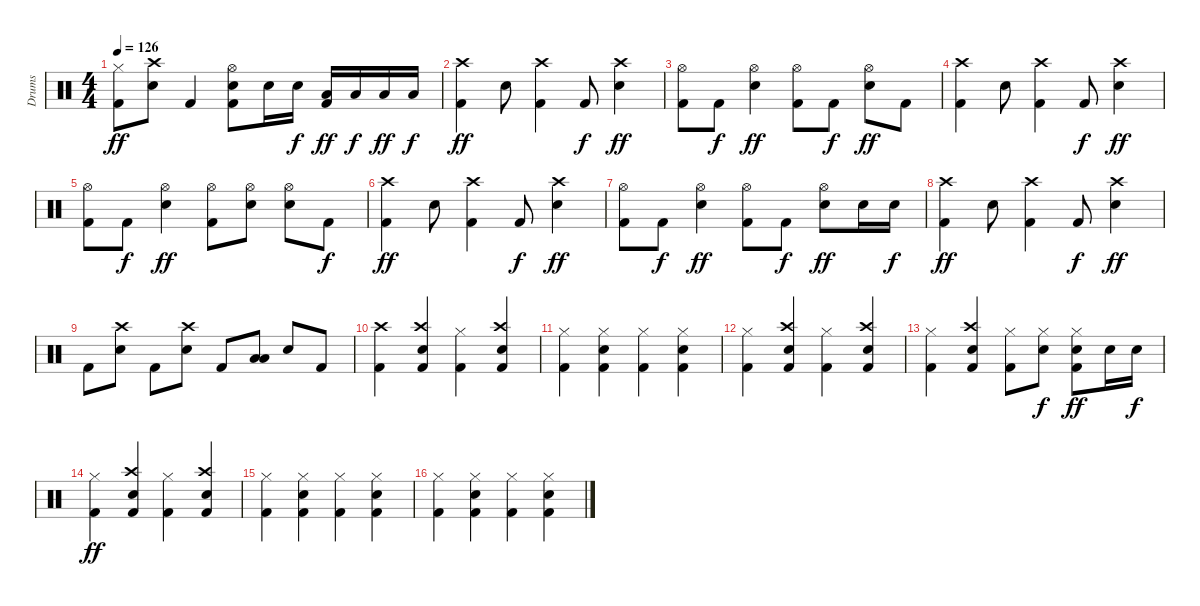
\track ("Drums" "Drums") {instrument percussion}
\staff {score}
\articulation defaults
\ts (4 4)
\tempo 126
\clef neutral
\ks c
("Hi-Hat (closed)" "Kick (hit) 2").8{dy ff} ("Crash high (hit)" "Snare (hit) 2").8 "Kick (hit) 2".4 ("Hi-Hat (open)" "Snare (hit) 2" "Kick (hit) 2").8 "Snare (hit) 2".16 "Snare (hit) 2".16{dy f} ("Low Tom (hit)" "Kick (hit) 2").16{dy ff} "Low Tom (hit)".16{dy f} "Low Floor Tom (hit)".16{dy ff} "Low Floor Tom (hit)".16{dy f} |
("Crash high (hit)" "Kick (hit) 2").4{dy ff} "Snare (hit) 2".8 ("Crash high (hit)" "Kick (hit) 2").4 "Kick (hit) 2".8{dy f} ("Crash high (hit)" "Snare (hit) 2").4{dy ff} |
("Hi-Hat (open)" "Kick (hit) 2").8 "Kick (hit) 2".8{dy f} ("Hi-Hat (open)" "Snare (hit) 2").4{dy ff} ("Hi-Hat (open)" "Kick (hit) 2").8 "Kick (hit) 2".8{dy f} ("Hi-Hat (open)" "Snare (hit) 2").8{dy ff} "Kick (hit) 2".8 |
("Crash high (hit)" "Kick (hit) 2").4 "Snare (hit) 2".8 ("Crash high (hit)" "Kick (hit) 2").4 "Kick (hit) 2".8{dy f} ("Crash high (hit)" "Snare (hit) 2").4{dy ff} |
("Hi-Hat (open)" "Kick (hit) 2").8 "Kick (hit) 2".8{dy f} ("Hi-Hat (open)" "Snare (hit) 2").4{dy ff} ("Hi-Hat (open)" "Kick (hit) 2").8 ("Hi-Hat (open)" "Snare (hit) 2").8 ("Hi-Hat (open)" "Snare (hit) 2").8 "Kick (hit) 2".8{dy f} |
("Crash high (hit)" "Kick (hit) 2").4{dy ff} "Snare (hit) 2".8 ("Crash high (hit)" "Kick (hit) 2").4 "Kick (hit) 2".8{dy f} ("Crash high (hit)" "Snare (hit) 2").4{dy ff} |
("Hi-Hat (open)" "Kick (hit) 2").8 "Kick (hit) 2".8{dy f} ("Hi-Hat (open)" "Snare (hit) 2").4{dy ff} ("Hi-Hat (open)" "Kick (hit) 2").8 "Kick (hit) 2".8{dy f} ("Hi-Hat (open)" "Snare (hit) 2").8{dy ff} "Snare (hit) 2".16 "Snare (hit) 2".16{dy f} |
("Crash high (hit)" "Kick (hit) 2").4{dy ff} "Snare (hit) 2".8 ("Crash high (hit)" "Kick (hit) 2").4 "Kick (hit) 2".8{dy f} ("Crash high (hit)" "Snare (hit) 2").4{dy ff} |
"Kick (hit) 2".8 ("Crash high (hit)" "Snare (hit) 2").8 "Kick (hit) 2".8 ("Crash high (hit)" "Snare (hit) 2").8 "Kick (hit) 2".8 ("Low Tom (hit)" "Low Floor Tom (hit)").8 "Snare (hit) 2".8 "Kick (hit) 2".8 |
("Crash high (hit)" "Kick (hit) 2").4 ("Crash high (hit)" "Snare (hit) 2" "Kick (hit) 2").4 ("Hi-Hat (closed)" "Kick (hit) 2").4 ("Crash high (hit)" "Snare (hit) 2" "Kick (hit) 2").4 |
("Hi-Hat (closed)" "Kick (hit) 2").4 ("Hi-Hat (closed)" "Snare (hit) 2" "Kick (hit) 2").4 ("Hi-Hat (closed)" "Kick (hit) 2").4 ("Hi-Hat (closed)" "Snare (hit) 2" "Kick (hit) 2").4 |
("Hi-Hat (closed)" "Kick (hit) 2").4 ("Crash high (hit)" "Snare (hit) 2" "Kick (hit) 2").4 ("Hi-Hat (closed)" "Kick (hit) 2").4 ("Crash high (hit)" "Snare (hit) 2" "Kick (hit) 2").4 |
("Hi-Hat (closed)" "Kick (hit) 2").4 ("Crash high (hit)" "Snare (hit) 2" "Kick (hit) 2").4 ("Hi-Hat (closed)" "Kick (hit) 2").8 ("Hi-Hat (closed)" "Snare (hit) 2").8{dy f} ("Hi-Hat (closed)" "Snare (hit) 2" "Kick (hit) 2").8{dy ff} "Snare (hit) 2".16 "Snare (hit) 2".16{dy f} |
("Hi-Hat (closed)" "Kick (hit) 2").4{dy ff} ("Crash high (hit)" "Snare (hit) 2" "Kick (hit) 2").4 ("Hi-Hat (closed)" "Kick (hit) 2").4 ("Crash high (hit)" "Snare (hit) 2" "Kick (hit) 2").4 |
("Hi-Hat (closed)" "Kick (hit) 2").4 ("Hi-Hat (closed)" "Snare (hit) 2" "Kick (hit) 2").4 ("Hi-Hat (closed)" "Kick (hit) 2").4 ("Hi-Hat (closed)" "Snare (hit) 2" "Kick (hit) 2").4 |
("Hi-Hat (closed)" "Kick (hit) 2").4 ("Hi-Hat (closed)" "Snare (hit) 2" "Kick (hit) 2").4 ("Hi-Hat (closed)" "Kick (hit) 2").4 ("Hi-Hat (closed)" "Snare (hit) 2" "Kick (hit) 2").4
